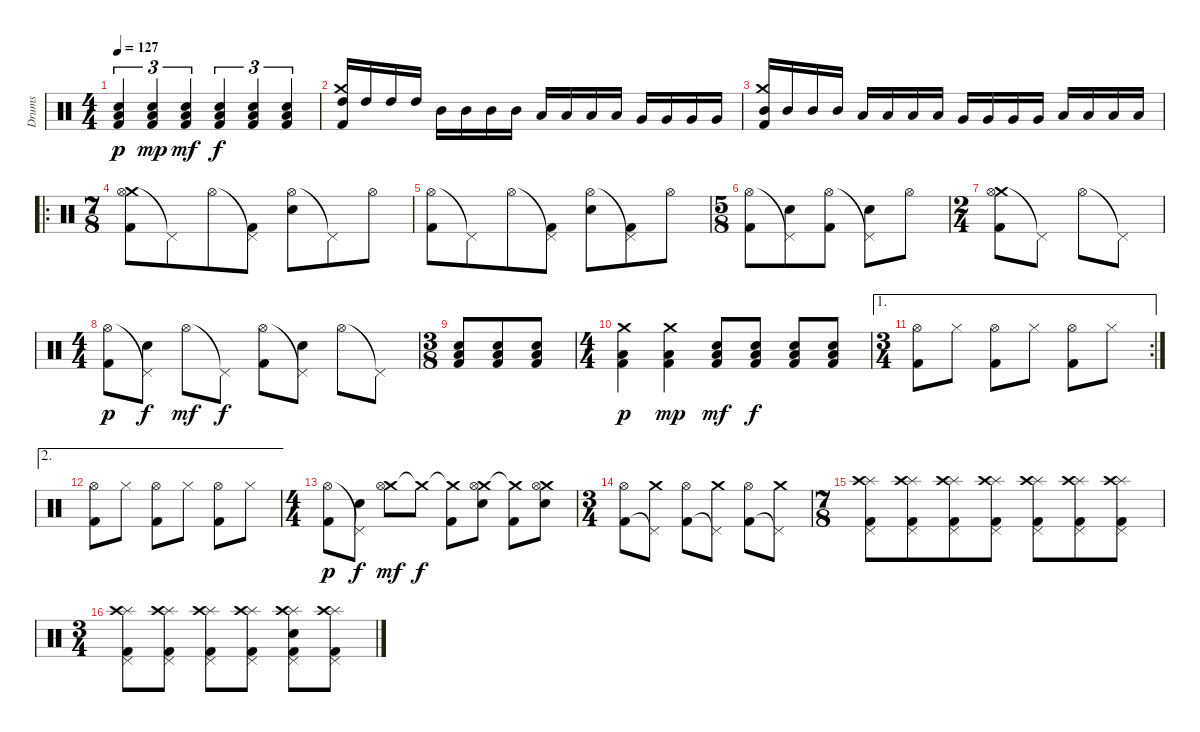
\track ("Drums" "Drums") {instrument percussion}
\staff {score}
\articulation defaults
\ts (4 4)
\tempo 127
\clef neutral
\ks c
("Low Tom (hit)" "Electric Snare (hit)" "Kick (hit) 2").4{tu (3 2) dy p} ("Low Tom (hit)" "Electric Snare (hit)" "Kick (hit) 2").4{tu (3 2) dy mp} ("Low Tom (hit)" "Electric Snare (hit)" "Kick (hit) 2").4{tu (3 2) dy mf} ("Low Tom (hit)" "Electric Snare (hit)" "Kick (hit) 2").4{tu (3 2) dy f} ("Low Tom (hit)" "Electric Snare (hit)" "Kick (hit) 2").4{tu (3 2)} ("Low Tom (hit)" "Electric Snare (hit)" "Kick (hit) 2").4{tu (3 2)} |
("Crash medium (hit)" "High Tom (hit)" "Kick (hit) 2").16 "High Tom (hit)".16 "High Tom (hit)".16 "High Tom (hit)".16 "Mid Tom (hit)".16 "Mid Tom (hit)".16 "Mid Tom (hit)".16 "Mid Tom (hit)".16 "Low Tom (hit)".16 "Low Tom (hit)".16 "Low Tom (hit)".16 "Low Tom (hit)".16 "Very Low Tom (hit)".16 "Very Low Tom (hit)".16 "Very Low Tom (hit)".16 "Very Low Tom (hit)".16 |
("Crash medium (hit)" "Mid Tom (hit)" "Kick (hit) 2").16 "Mid Tom (hit)".16 "Mid Tom (hit)".16 "Mid Tom (hit)".16 "Low Tom (hit)".16 "Low Tom (hit)".16 "Low Tom (hit)".16 "Low Tom (hit)".16 "Very Low Tom (hit)".16 "Very Low Tom (hit)".16 "Very Low Tom (hit)".16 "Very Low Tom (hit)".16 "Low Floor Tom (hit)".16 "Low Floor Tom (hit)".16 "Low Floor Tom (hit)".16 "Low Floor Tom (hit)".16 |
\ro
\ts (7 8)
("Crash medium (hit)" "Hi-Hat (open)" "Kick (hit) 2").8 "Pedal Hi-Hat (hit)"{t}.8 "Hi-Hat (open)".8 ("Pedal Hi-Hat (hit)"{t} "Kick (hit) 2").8 ("Hi-Hat (open)" "Electric Snare (hit)").8 "Pedal Hi-Hat (hit)"{t}.8 "Hi-Hat (open)".8 |
("Hi-Hat (open)" "Kick (hit) 2").8 "Pedal Hi-Hat (hit)"{t}.8 "Hi-Hat (open)".8 ("Pedal Hi-Hat (hit)"{t} "Kick (hit) 2").8 ("Hi-Hat (open)" "Electric Snare (hit)").8 ("Pedal Hi-Hat (hit)"{t} "Kick (hit) 2").8 "Hi-Hat (open)".8 |
\ts (5 8)
("Hi-Hat (open)" "Kick (hit) 2").8 ("Pedal Hi-Hat (hit)"{t} "Electric Snare (hit)").8 ("Hi-Hat (open)" "Kick (hit) 2").8 ("Pedal Hi-Hat (hit)"{t} "Electric Snare (hit)").8 "Hi-Hat (open)".8 |
\ts (2 4)
("Crash medium (hit)" "Hi-Hat (open)" "Kick (hit) 2").8 "Pedal Hi-Hat (hit)"{t}.8 "Hi-Hat (open)".8 "Pedal Hi-Hat (hit)"{t}.8 |
\ts (4 4)
("Hi-Hat (open)" "Kick (hit) 2").8{dy p} ("Pedal Hi-Hat (hit)"{t} "Electric Snare (hit)").8{dy f} "Hi-Hat (open)".8{dy mf} "Pedal Hi-Hat (hit)"{t}.8{dy f} ("Hi-Hat (open)" "Kick (hit) 2").8 ("Pedal Hi-Hat (hit)"{t} "Electric Snare (hit)").8 "Hi-Hat (open)".8 "Pedal Hi-Hat (hit)"{t}.8 |
\ts (3 8)
("Low Tom (hit)" "Electric Snare (hit)" "Kick (hit) 2").8 ("Low Tom (hit)" "Electric Snare (hit)" "Kick (hit) 2").8 ("Low Tom (hit)" "Electric Snare (hit)" "Kick (hit) 2").8 |
\ts (4 4)
("Crash medium (hit)" "Low Tom (hit)" "Kick (hit) 2").4{dy p} ("Crash medium (hit)" "Low Tom (hit)" "Kick (hit) 2").4{dy mp} ("Low Tom (hit)" "Electric Snare (hit)" "Kick (hit) 2").8{dy mf} ("Low Tom (hit)" "Electric Snare (hit)" "Kick (hit) 2").8{dy f} ("Low Tom (hit)" "Electric Snare (hit)" "Kick (hit) 2").8 ("Low Tom (hit)" "Electric Snare (hit)" "Kick (hit) 2").8 |
\ae 1
\rc 2
\ts (3 4)
("Hi-Hat (open)" "Kick (hit) 2").8 "Hi-Hat (closed)".8 ("Hi-Hat (open)" "Kick (hit) 2").8 "Hi-Hat (closed)".8 ("Hi-Hat (open)" "Kick (hit) 2").8 "Hi-Hat (closed)".8 |
\ae 2
("Hi-Hat (open)" "Kick (hit) 2").8 "Hi-Hat (closed)".8 ("Hi-Hat (open)" "Kick (hit) 2").8 "Hi-Hat (closed)".8 ("Hi-Hat (open)" "Kick (hit) 2").8 "Hi-Hat (closed)".8 |
\ts (4 4)
("Hi-Hat (open)" "Kick (hit) 2").8{dy p} ("Pedal Hi-Hat (hit)"{t} "Electric Snare (hit)").8{dy f} ("Crash medium (hit)" "Hi-Hat (open)").8{dy mf} "Crash medium (hit)"{t}.8{dy f} ("Crash medium (hit)"{t} "Kick (hit) 2").8 ("Crash medium (hit)" "Hi-Hat (open)" "Electric Snare (hit)").8 ("Crash medium (hit)"{t} "Kick (hit) 2").8 ("Crash medium (hit)" "Hi-Hat (open)" "Electric Snare (hit)").8 |
\ts (3 4)
("Hi-Hat (open)" "Kick (hit) 2").8 ("Crash medium (hit)" "Pedal Hi-Hat (hit)"{t}).8 ("Hi-Hat (open)" "Kick (hit) 2").8 ("Crash medium (hit)" "Pedal Hi-Hat (hit)"{t}).8 ("Hi-Hat (open)" "Kick (hit) 2").8 ("Crash medium (hit)" "Pedal Hi-Hat (hit)"{t}).8 |
\ts (7 8)
("Splash (hit)" "Crash high (hit)" "Pedal Hi-Hat (hit)" "Kick (hit) 2").8 ("Splash (hit)" "Crash high (hit)" "Pedal Hi-Hat (hit)" "Kick (hit) 2").8 ("Splash (hit)" "Crash high (hit)" "Pedal Hi-Hat (hit)" "Kick (hit) 2").8 ("Splash (hit)" "Crash high (hit)" "Pedal Hi-Hat (hit)" "Kick (hit) 2").8 ("Splash (hit)" "Crash high (hit)" "Pedal Hi-Hat (hit)" "Kick (hit) 2").8 ("Splash (hit)" "Crash high (hit)" "Pedal Hi-Hat (hit)" "Kick (hit) 2").8 ("Splash (hit)" "Crash high (hit)" "Pedal Hi-Hat (hit)" "Kick (hit) 2").8 |
\ts (3 4)
("Splash (hit)" "Crash high (hit)" "Pedal Hi-Hat (hit)" "Kick (hit) 2").8 ("Splash (hit)" "Crash high (hit)" "Pedal Hi-Hat (hit)" "Kick (hit) 2").8 ("Splash (hit)" "Crash high (hit)" "Pedal Hi-Hat (hit)" "Kick (hit) 2").8 ("Splash (hit)" "Crash high (hit)" "Pedal Hi-Hat (hit)" "Kick (hit) 2").8 ("Splash (hit)" "Crash high (hit)" "Pedal Hi-Hat (hit)" "Electric Snare (hit)" "Kick (hit) 2").8 ("Splash (hit)" "Crash high (hit)" "Pedal Hi-Hat (hit)" "Kick (hit) 2").8
